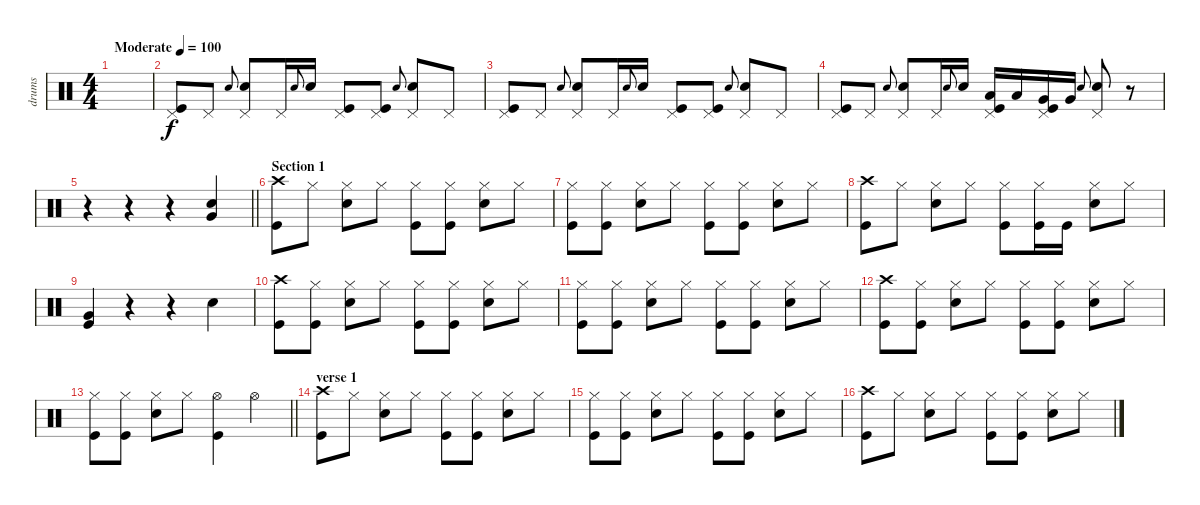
\track ("drums" "drums") {instrument percussion}
\staff {score}
\articulation defaults
\ts (4 4)
\tempo (100 "Moderate")
\clef neutral
\ks c
|
("Pedal Hi-Hat (hit)" "Kick (hit)").8 "Pedal Hi-Hat (hit)".8 "Electric Snare (hit)".8{gr onbeat} ("Pedal Hi-Hat (hit)" "Electric Snare (hit)").8 "Pedal Hi-Hat (hit)".16 "Electric Snare (hit)".8{gr onbeat} "Electric Snare (hit)".16 ("Pedal Hi-Hat (hit)" "Kick (hit)").8 ("Pedal Hi-Hat (hit)" "Kick (hit)").8 "Electric Snare (hit)".8{gr onbeat} ("Pedal Hi-Hat (hit)" "Electric Snare (hit)").8 "Pedal Hi-Hat (hit)".8 |
("Pedal Hi-Hat (hit)" "Kick (hit)").8 "Pedal Hi-Hat (hit)".8 "Electric Snare (hit)".8{gr onbeat} ("Pedal Hi-Hat (hit)" "Electric Snare (hit)").8 "Pedal Hi-Hat (hit)".16 "Electric Snare (hit)".8{gr onbeat} "Electric Snare (hit)".16 ("Pedal Hi-Hat (hit)" "Kick (hit)").8 ("Pedal Hi-Hat (hit)" "Kick (hit)").8 "Electric Snare (hit)".8{gr onbeat} ("Pedal Hi-Hat (hit)" "Electric Snare (hit)").8 "Pedal Hi-Hat (hit)".8 |
("Pedal Hi-Hat (hit)" "Kick (hit)").8 "Pedal Hi-Hat (hit)".8 "Electric Snare (hit)".8{gr onbeat} ("Pedal Hi-Hat (hit)" "Electric Snare (hit)").8 "Pedal Hi-Hat (hit)".16 "Electric Snare (hit)".8{gr onbeat} "Electric Snare (hit)".16 ("Pedal Hi-Hat (hit)" "Low Tom (hit)" "Kick (hit)").16 "Low Tom (hit)".16 ("Pedal Hi-Hat (hit)" "Very Low Tom (hit)" "Kick (hit)").16 "Very Low Tom (hit)".16 "Electric Snare (hit)".8{gr onbeat} ("Pedal Hi-Hat (hit)" "Electric Snare (hit)").8 r.8 |
\barLineRight lightlight
r.4 r.4 r.4 ("Electric Snare (hit)" "Very Low Tom (hit)").4 |
\section ("" "Section 1")
("Crash high (hit)" "Kick (hit)").8 "Hi-Hat (closed)".8 ("Hi-Hat (closed)" "Electric Snare (hit)").8 "Hi-Hat (closed)".8 ("Hi-Hat (closed)" "Kick (hit)").8 ("Hi-Hat (closed)" "Kick (hit)").8 ("Hi-Hat (closed)" "Electric Snare (hit)").8 "Hi-Hat (closed)".8 |
("Hi-Hat (closed)" "Kick (hit)").8 ("Hi-Hat (closed)" "Kick (hit)").8 ("Hi-Hat (closed)" "Electric Snare (hit)").8 "Hi-Hat (closed)".8 ("Hi-Hat (closed)" "Kick (hit)").8 ("Hi-Hat (closed)" "Kick (hit)").8 ("Hi-Hat (closed)" "Electric Snare (hit)").8 "Hi-Hat (closed)".8 |
("Crash high (hit)" "Kick (hit)").8 "Hi-Hat (closed)".8 ("Hi-Hat (closed)" "Electric Snare (hit)").8 "Hi-Hat (closed)".8 ("Hi-Hat (closed)" "Kick (hit)").8 ("Hi-Hat (closed)" "Kick (hit)").16 "Kick (hit)".16 ("Hi-Hat (closed)" "Electric Snare (hit)").8 "Hi-Hat (closed)".8 |
("Very Low Tom (hit)" "Kick (hit)").4 r.4 r.4 "Electric Snare (hit)".4 |
("Crash high (hit)" "Kick (hit)").8 ("Hi-Hat (closed)" "Kick (hit)").8 ("Hi-Hat (closed)" "Electric Snare (hit)").8 "Hi-Hat (closed)".8 ("Hi-Hat (closed)" "Kick (hit)").8 ("Hi-Hat (closed)" "Kick (hit)").8 ("Hi-Hat (closed)" "Electric Snare (hit)").8 "Hi-Hat (closed)".8 |
("Hi-Hat (closed)" "Kick (hit)").8 ("Hi-Hat (closed)" "Kick (hit)").8 ("Hi-Hat (closed)" "Electric Snare (hit)").8 "Hi-Hat (closed)".8 ("Hi-Hat (closed)" "Kick (hit)").8 ("Hi-Hat (closed)" "Kick (hit)").8 ("Hi-Hat (closed)" "Electric Snare (hit)").8 "Hi-Hat (closed)".8 |
("Crash high (hit)" "Kick (hit)").8 ("Hi-Hat (closed)" "Kick (hit)").8 ("Hi-Hat (closed)" "Electric Snare (hit)").8 "Hi-Hat (closed)".8 ("Hi-Hat (closed)" "Kick (hit)").8 ("Hi-Hat (closed)" "Kick (hit)").8 ("Hi-Hat (closed)" "Electric Snare (hit)").8 "Hi-Hat (closed)".8 |
\barLineRight lightlight
("Hi-Hat (closed)" "Kick (hit)").8 ("Hi-Hat (closed)" "Kick (hit)").8 ("Hi-Hat (closed)" "Electric Snare (hit)").8 "Hi-Hat (closed)".8 ("Hi-Hat (open)" "Kick (hit)").4 "Hi-Hat (open)".4 |
\section ("" "verse 1")
("Crash high (hit)" "Kick (hit)").8 "Hi-Hat (closed)".8 ("Hi-Hat (closed)" "Electric Snare (hit)").8 "Hi-Hat (closed)".8 ("Hi-Hat (closed)" "Kick (hit)").8 ("Hi-Hat (closed)" "Kick (hit)").8 ("Hi-Hat (closed)" "Electric Snare (hit)").8 "Hi-Hat (closed)".8 |
("Hi-Hat (closed)" "Kick (hit)").8 ("Hi-Hat (closed)" "Kick (hit)").8 ("Hi-Hat (closed)" "Electric Snare (hit)").8 "Hi-Hat (closed)".8 ("Hi-Hat (closed)" "Kick (hit)").8 ("Hi-Hat (closed)" "Kick (hit)").8 ("Hi-Hat (closed)" "Electric Snare (hit)").8 "Hi-Hat (closed)".8 |
("Crash high (hit)" "Kick (hit)").8 "Hi-Hat (closed)".8 ("Hi-Hat (closed)" "Electric Snare (hit)").8 "Hi-Hat (closed)".8 ("Hi-Hat (closed)" "Kick (hit)").8 ("Hi-Hat (closed)" "Kick (hit)").8 ("Hi-Hat (closed)" "Electric Snare (hit)").8 "Hi-Hat (closed)".8
